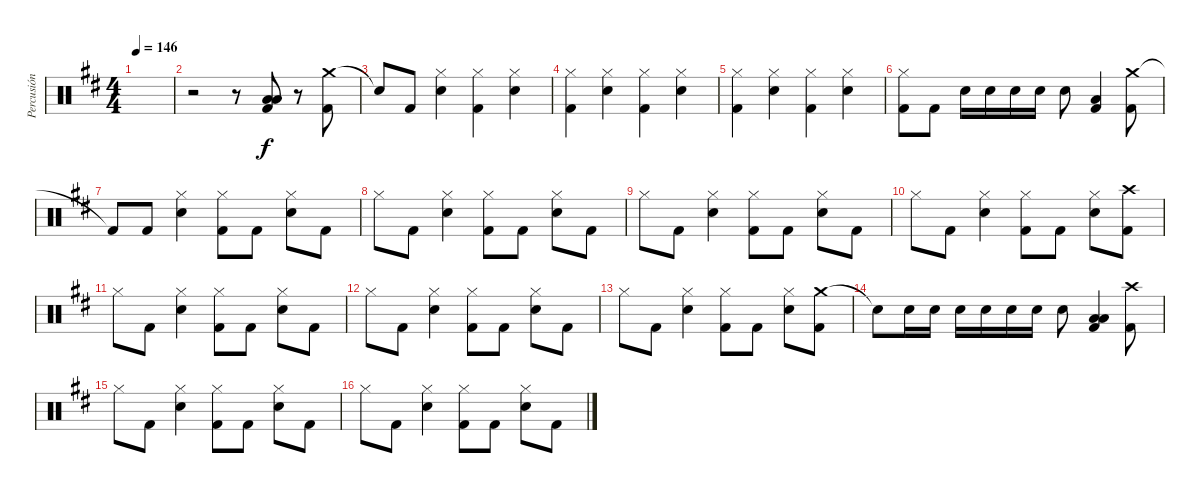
\track ("Percusión" "Percusión") {instrument percussion}
\staff {score}
\articulation defaults
\ts (4 4)
\tempo 146
\clef neutral
\ks d
|
r.2 r.8 ("Low Floor Tom (hit)" "Low Floor Tom (hit)" "Kick (hit) 2").8 r.8 ("Crash medium (hit)" "Kick (hit) 2").8 |
"Snare (hit)"{t}.8 "Kick (hit) 2".8 ("Hi-Hat (closed)" "Snare (hit) 2").4 ("Hi-Hat (closed)" "Kick (hit) 2").4 ("Hi-Hat (closed)" "Snare (hit) 2").4 |
("Hi-Hat (closed)" "Kick (hit) 2").4 ("Hi-Hat (closed)" "Snare (hit) 2").4 ("Hi-Hat (closed)" "Kick (hit) 2").4 ("Hi-Hat (closed)" "Snare (hit) 2").4 |
("Hi-Hat (closed)" "Kick (hit) 2").4 ("Hi-Hat (closed)" "Snare (hit) 2").4 ("Hi-Hat (closed)" "Kick (hit) 2").4 ("Hi-Hat (closed)" "Snare (hit) 2").4 |
("Hi-Hat (closed)" "Kick (hit) 2").8 "Kick (hit) 2".8 "Snare (hit) 2".16 "Snare (hit) 2".16 "Snare (hit) 2".16 "Snare (hit) 2".16 "Snare (hit) 2".8 ("Low Floor Tom (hit)" "Kick (hit) 2").4 ("Crash medium (hit)" "Kick (hit) 2").8 |
"Kick (hit) 2"{t}.8 "Kick (hit) 2".8 ("Hi-Hat (closed)" "Snare (hit) 2").4 ("Hi-Hat (closed)" "Kick (hit) 2").8 "Kick (hit) 2".8 ("Hi-Hat (closed)" "Snare (hit) 2").8 "Kick (hit) 2".8 |
"Hi-Hat (closed)".8 "Kick (hit) 2".8 ("Hi-Hat (closed)" "Snare (hit) 2").4 ("Hi-Hat (closed)" "Kick (hit) 2").8 "Kick (hit) 2".8 ("Hi-Hat (closed)" "Snare (hit) 2").8 "Kick (hit) 2".8 |
"Hi-Hat (closed)".8 "Kick (hit) 2".8 ("Hi-Hat (closed)" "Snare (hit) 2").4 ("Hi-Hat (closed)" "Kick (hit) 2").8 "Kick (hit) 2".8 ("Hi-Hat (closed)" "Snare (hit) 2").8 "Kick (hit) 2".8 |
"Hi-Hat (closed)".8 "Kick (hit) 2".8 ("Hi-Hat (closed)" "Snare (hit) 2").4 ("Hi-Hat (closed)" "Kick (hit) 2").8 "Kick (hit) 2".8 ("Hi-Hat (closed)" "Snare (hit) 2").8 ("Crash high (hit)" "Kick (hit) 2").8 |
"Hi-Hat (closed)".8 "Kick (hit) 2".8 ("Hi-Hat (closed)" "Snare (hit) 2").4 ("Hi-Hat (closed)" "Kick (hit) 2").8 "Kick (hit) 2".8 ("Hi-Hat (closed)" "Snare (hit) 2").8 "Kick (hit) 2".8 |
"Hi-Hat (closed)".8 "Kick (hit) 2".8 ("Hi-Hat (closed)" "Snare (hit) 2").4 ("Hi-Hat (closed)" "Kick (hit) 2").8 "Kick (hit) 2".8 ("Hi-Hat (closed)" "Snare (hit) 2").8 "Kick (hit) 2".8 |
"Hi-Hat (closed)".8 "Kick (hit) 2".8 ("Hi-Hat (closed)" "Snare (hit) 2").4 ("Hi-Hat (closed)" "Kick (hit) 2").8 "Kick (hit) 2".8 ("Hi-Hat (closed)" "Snare (hit) 2").8 ("Crash medium (hit)" "Kick (hit) 2").8 |
"Snare (hit)"{t}.8 "Snare (hit) 2".16 "Snare (hit) 2".16 "Snare (hit) 2".16 "Snare (hit) 2".16 "Snare (hit) 2".16 "Snare (hit) 2".16 "Snare (hit) 2".8 ("Low Floor Tom (hit)" "Low Tom (hit)" "Kick (hit) 2").4 ("Crash high (hit)" "Kick (hit) 2").8 |
"Hi-Hat (closed)".8 "Kick (hit) 2".8 ("Hi-Hat (closed)" "Snare (hit) 2").4 ("Hi-Hat (closed)" "Kick (hit) 2").8 "Kick (hit) 2".8 ("Hi-Hat (closed)" "Snare (hit) 2").8 "Kick (hit) 2".8 |
"Hi-Hat (closed)".8 "Kick (hit) 2".8 ("Hi-Hat (closed)" "Snare (hit) 2").4 ("Hi-Hat (closed)" "Kick (hit) 2").8 "Kick (hit) 2".8 ("Hi-Hat (closed)" "Snare (hit) 2").8 "Kick (hit) 2".8
